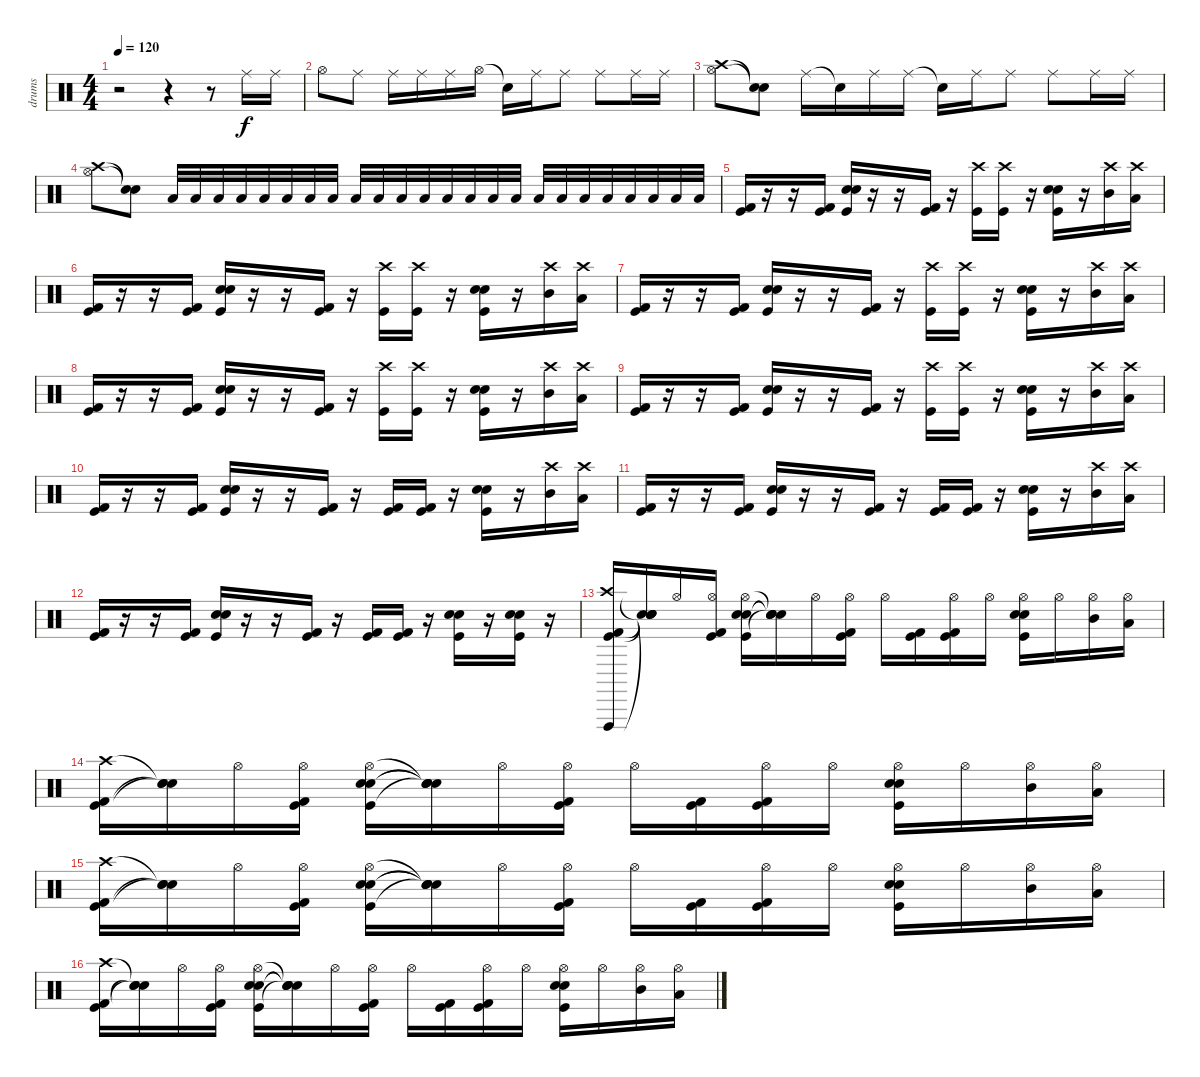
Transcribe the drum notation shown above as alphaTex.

\track ("drums" "drums") {instrument percussion}
\staff {score}
\articulation defaults
\ts (4 4)
\tempo 120
\clef neutral
\ks c
r.2{dy f} r.4 r.8 "Ride (middle)".16 "Ride (middle)".16 |
"Hi-Hat (open)".8 "Ride (middle)".8 "Ride (middle)".16 "Ride (middle)".16 "Ride (middle)".16 "Hi-Hat (open)".16 "Snare (hit)"{t}.16 "Ride (middle)".16 "Ride (middle)".8 "Ride (middle)".8 "Ride (middle)".16 "Ride (middle)".16 |
("Hi-Hat (open)" "Crash high (hit)").8 ("Snare (hit)"{t} "Snare (hit)"{t}).8 "Ride (middle)".16 "Snare (hit)"{t}.16 "Ride (middle)".16 "Ride (middle)".16 "Snare (hit)"{t}.16 "Ride (middle)".16 "Ride (middle)".8 "Ride (middle)".8 "Ride (middle)".16 "Ride (middle)".16 |
("Hi-Hat (open)" "Crash high (hit)").8 ("Snare (hit)"{t} "Snare (hit)"{t}).8 "Low Floor Tom (hit)".32 "Low Floor Tom (hit)".32 "Low Floor Tom (hit)".32 "Low Floor Tom (hit)".32 "Low Floor Tom (hit)".32 "Low Floor Tom (hit)".32 "Low Floor Tom (hit)".32 "Low Floor Tom (hit)".32 "Low Floor Tom (hit)".32 "Low Floor Tom (hit)".32 "Low Floor Tom (hit)".32 "Low Floor Tom (hit)".32 "Low Floor Tom (hit)".32 "Low Floor Tom (hit)".32 "Low Floor Tom (hit)".32 "Low Floor Tom (hit)".32 "Low Floor Tom (hit)".32 "Low Floor Tom (hit)".32 "Low Floor Tom (hit)".32 "Low Floor Tom (hit)".32 "Low Floor Tom (hit)".32 "Low Floor Tom (hit)".32 "Low Floor Tom (hit)".32 "Low Floor Tom (hit)".32 |
("Kick (hit) 2" "Kick (hit)").16 r.16 r.16 ("Kick (hit)" "Kick (hit) 2").16 ("Snare (hit) 2" "Kick (hit)" "Electric Snare (hit)").16 r.16 r.16 ("Kick (hit)" "Kick (hit) 2").16 r.16 ("Kick (hit)" "Crash high (hit)").16 ("Kick (hit)" "Crash high (hit)").16 r.16 ("Snare (hit) 2" "Kick (hit)" "Electric Snare (hit)").16 r.16 ("Mid Tom (hit)" "Crash high (hit)").16 ("Low Tom (hit)" "Crash high (hit)").16 |
("Kick (hit) 2" "Kick (hit)").16 r.16 r.16 ("Kick (hit)" "Kick (hit) 2").16 ("Snare (hit) 2" "Kick (hit)" "Electric Snare (hit)").16 r.16 r.16 ("Kick (hit)" "Kick (hit) 2").16 r.16 ("Kick (hit)" "Crash high (hit)").16 ("Kick (hit)" "Crash high (hit)").16 r.16 ("Snare (hit) 2" "Kick (hit)" "Electric Snare (hit)").16 r.16 ("Mid Tom (hit)" "Crash high (hit)").16 ("Low Tom (hit)" "Crash high (hit)").16 |
("Kick (hit) 2" "Kick (hit)").16 r.16 r.16 ("Kick (hit)" "Kick (hit) 2").16 ("Snare (hit) 2" "Kick (hit)" "Electric Snare (hit)").16 r.16 r.16 ("Kick (hit)" "Kick (hit) 2").16 r.16 ("Kick (hit)" "Crash high (hit)").16 ("Kick (hit)" "Crash high (hit)").16 r.16 ("Snare (hit) 2" "Kick (hit)" "Electric Snare (hit)").16 r.16 ("Mid Tom (hit)" "Crash high (hit)").16 ("Low Tom (hit)" "Crash high (hit)").16 |
("Kick (hit) 2" "Kick (hit)").16 r.16 r.16 ("Kick (hit)" "Kick (hit) 2").16 ("Snare (hit) 2" "Kick (hit)" "Electric Snare (hit)").16 r.16 r.16 ("Kick (hit)" "Kick (hit) 2").16 r.16 ("Kick (hit)" "Crash high (hit)").16 ("Kick (hit)" "Crash high (hit)").16 r.16 ("Snare (hit) 2" "Kick (hit)" "Electric Snare (hit)").16 r.16 ("Mid Tom (hit)" "Crash high (hit)").16 ("Low Tom (hit)" "Crash high (hit)").16 |
("Kick (hit) 2" "Kick (hit)").16 r.16 r.16 ("Kick (hit)" "Kick (hit) 2").16 ("Snare (hit) 2" "Kick (hit)" "Electric Snare (hit)").16 r.16 r.16 ("Kick (hit)" "Kick (hit) 2").16 r.16 ("Kick (hit)" "Crash high (hit)").16 ("Kick (hit)" "Crash high (hit)").16 r.16 ("Snare (hit) 2" "Kick (hit)" "Electric Snare (hit)").16 r.16 ("Mid Tom (hit)" "Crash high (hit)").16 ("Low Tom (hit)" "Crash high (hit)").16 |
("Kick (hit) 2" "Kick (hit)").16 r.16 r.16 ("Kick (hit)" "Kick (hit) 2").16 ("Snare (hit) 2" "Kick (hit)" "Electric Snare (hit)").16 r.16 r.16 ("Kick (hit)" "Kick (hit) 2").16 r.16 ("Kick (hit)" "Kick (hit) 2").16 ("Kick (hit)" "Kick (hit) 2").16 r.16 ("Snare (hit) 2" "Kick (hit)" "Electric Snare (hit)").16 r.16 ("Mid Tom (hit)" "Crash high (hit)").16 ("Low Tom (hit)" "Crash high (hit)").16 |
("Kick (hit) 2" "Kick (hit)").16 r.16 r.16 ("Kick (hit)" "Kick (hit) 2").16 ("Snare (hit) 2" "Kick (hit)" "Electric Snare (hit)").16 r.16 r.16 ("Kick (hit)" "Kick (hit) 2").16 r.16 ("Kick (hit)" "Kick (hit) 2").16 ("Kick (hit)" "Kick (hit) 2").16 r.16 ("Snare (hit) 2" "Kick (hit)" "Electric Snare (hit)").16 r.16 ("Mid Tom (hit)" "Crash high (hit)").16 ("Low Tom (hit)" "Crash high (hit)").16 |
("Kick (hit) 2" "Kick (hit)").16 r.16 r.16 ("Kick (hit)" "Kick (hit) 2").16 ("Snare (hit) 2" "Kick (hit)" "Electric Snare (hit)").16 r.16 r.16 ("Kick (hit)" "Kick (hit) 2").16 r.16 ("Kick (hit)" "Kick (hit) 2").16 ("Kick (hit)" "Kick (hit) 2").16 r.16 ("Snare (hit) 2" "Kick (hit)" "Electric Snare (hit)").16 r.16 ("Snare (hit) 2" "Kick (hit)" "Electric Snare (hit)").16 r.16 |
("Kick (hit) 2" "Kick (hit)" "Vibraslap (hit)" "Crash high (hit)").16 ("Snare (hit)"{t} "Snare (hit)"{t} "Snare (hit)"{t} "Snare (hit)"{t}).16 "Hi-Hat (open)".16 ("Kick (hit)" "Kick (hit) 2" "Hi-Hat (open)").16 ("Snare (hit) 2" "Kick (hit)" "Electric Snare (hit)" "Hi-Hat (open)").16 ("Snare (hit)"{t} "Snare (hit)"{t} "Snare (hit)"{t} "Snare (hit)"{t}).16 "Hi-Hat (open)".16 ("Kick (hit)" "Kick (hit) 2" "Hi-Hat (open)").16 "Hi-Hat (open)".16 ("Kick (hit)" "Kick (hit) 2").16 ("Kick (hit)" "Kick (hit) 2" "Hi-Hat (open)").16 "Hi-Hat (open)".16 ("Snare (hit) 2" "Kick (hit)" "Electric Snare (hit)" "Hi-Hat (open)").16 "Hi-Hat (open)".16 ("Mid Tom (hit)" "Hi-Hat (open)").16 ("Low Tom (hit)" "Hi-Hat (open)").16 |
("Kick (hit) 2" "Kick (hit)" "Crash high (hit)").16 ("Snare (hit)"{t} "Snare (hit)"{t} "Snare (hit)"{t}).16 "Hi-Hat (open)".16 ("Kick (hit)" "Kick (hit) 2" "Hi-Hat (open)").16 ("Snare (hit) 2" "Kick (hit)" "Electric Snare (hit)" "Hi-Hat (open)").16 ("Snare (hit)"{t} "Snare (hit)"{t} "Snare (hit)"{t} "Snare (hit)"{t}).16 "Hi-Hat (open)".16 ("Kick (hit)" "Kick (hit) 2" "Hi-Hat (open)").16 "Hi-Hat (open)".16 ("Kick (hit)" "Kick (hit) 2").16 ("Kick (hit)" "Kick (hit) 2" "Hi-Hat (open)").16 "Hi-Hat (open)".16 ("Snare (hit) 2" "Kick (hit)" "Electric Snare (hit)" "Hi-Hat (open)").16 "Hi-Hat (open)".16 ("Mid Tom (hit)" "Hi-Hat (open)").16 ("Low Tom (hit)" "Hi-Hat (open)").16 |
("Kick (hit) 2" "Kick (hit)" "Crash high (hit)").16 ("Snare (hit)"{t} "Snare (hit)"{t} "Snare (hit)"{t}).16 "Hi-Hat (open)".16 ("Kick (hit)" "Kick (hit) 2" "Hi-Hat (open)").16 ("Snare (hit) 2" "Kick (hit)" "Electric Snare (hit)" "Hi-Hat (open)").16 ("Snare (hit)"{t} "Snare (hit)"{t} "Snare (hit)"{t} "Snare (hit)"{t}).16 "Hi-Hat (open)".16 ("Kick (hit)" "Kick (hit) 2" "Hi-Hat (open)").16 "Hi-Hat (open)".16 ("Kick (hit)" "Kick (hit) 2").16 ("Kick (hit)" "Kick (hit) 2" "Hi-Hat (open)").16 "Hi-Hat (open)".16 ("Snare (hit) 2" "Kick (hit)" "Electric Snare (hit)" "Hi-Hat (open)").16 "Hi-Hat (open)".16 ("Mid Tom (hit)" "Hi-Hat (open)").16 ("Low Tom (hit)" "Hi-Hat (open)").16 |
("Kick (hit) 2" "Kick (hit)" "Crash high (hit)").16 ("Snare (hit)"{t} "Snare (hit)"{t} "Snare (hit)"{t}).16 "Hi-Hat (open)".16 ("Kick (hit)" "Kick (hit) 2" "Hi-Hat (open)").16 ("Snare (hit) 2" "Kick (hit)" "Electric Snare (hit)" "Hi-Hat (open)").16 ("Snare (hit)"{t} "Snare (hit)"{t} "Snare (hit)"{t} "Snare (hit)"{t}).16 "Hi-Hat (open)".16 ("Kick (hit)" "Kick (hit) 2" "Hi-Hat (open)").16 "Hi-Hat (open)".16 ("Kick (hit)" "Kick (hit) 2").16 ("Kick (hit)" "Kick (hit) 2" "Hi-Hat (open)").16 "Hi-Hat (open)".16 ("Snare (hit) 2" "Kick (hit)" "Electric Snare (hit)" "Hi-Hat (open)").16 "Hi-Hat (open)".16 ("Mid Tom (hit)" "Hi-Hat (open)").16 ("Low Tom (hit)" "Hi-Hat (open)").16
